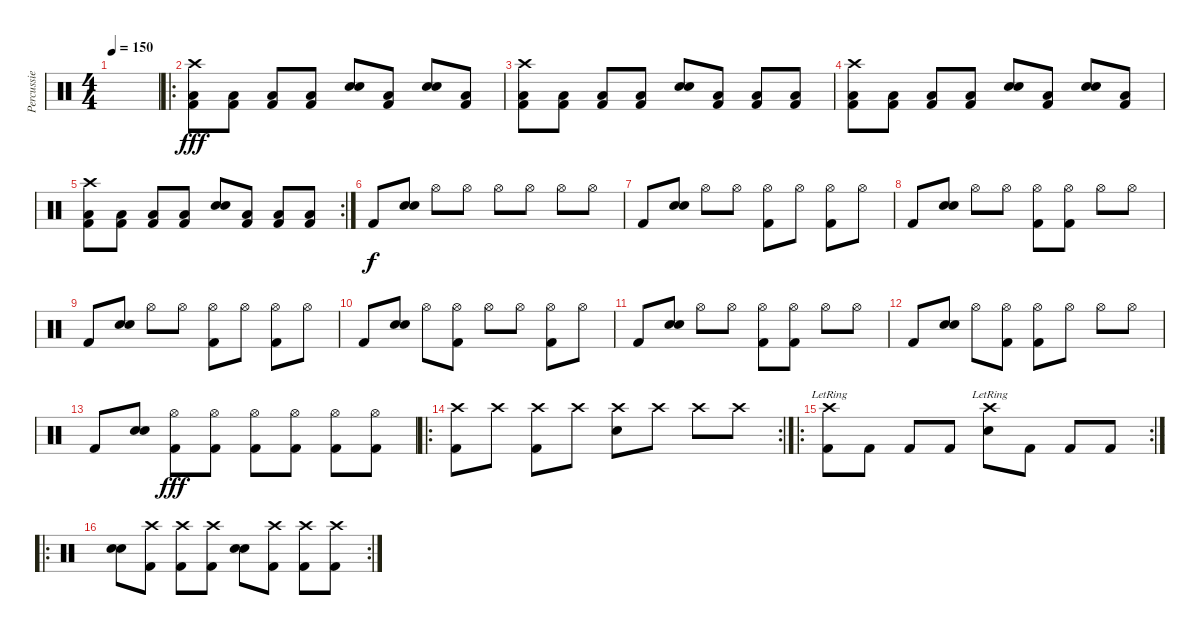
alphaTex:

\track ("Percussie" "Percussie") {instrument percussion}
\staff {score}
\articulation defaults
\ts (4 4)
\tempo 150
\clef neutral
\ks c
|
\ro
("Crash high (hit)" "Low Floor Tom (hit)" "Kick (hit) 2").8{dy fff} ("Low Floor Tom (hit)" "Kick (hit) 2").8 ("Low Floor Tom (hit)" "Kick (hit) 2").8 ("Low Floor Tom (hit)" "Kick (hit) 2").8 ("Snare (hit) 2" "Snare (hit) 2").8{bd 480} ("Low Floor Tom (hit)" "Kick (hit) 2").8 ("Snare (hit) 2" "Snare (hit) 2").8 ("Low Floor Tom (hit)" "Kick (hit) 2").8 |
("Crash high (hit)" "Low Floor Tom (hit)" "Kick (hit) 2").8 ("Low Floor Tom (hit)" "Kick (hit) 2").8 ("Low Floor Tom (hit)" "Kick (hit) 2").8 ("Low Floor Tom (hit)" "Kick (hit) 2").8 ("Snare (hit) 2" "Snare (hit) 2").8{bd 480} ("Low Floor Tom (hit)" "Kick (hit) 2").8 ("Low Floor Tom (hit)" "Kick (hit) 2").8 ("Low Floor Tom (hit)" "Kick (hit) 2").8 |
("Crash high (hit)" "Low Floor Tom (hit)" "Kick (hit) 2").8 ("Low Floor Tom (hit)" "Kick (hit) 2").8 ("Low Floor Tom (hit)" "Kick (hit) 2").8 ("Low Floor Tom (hit)" "Kick (hit) 2").8 ("Snare (hit) 2" "Snare (hit) 2").8{bd 480} ("Low Floor Tom (hit)" "Kick (hit) 2").8 ("Snare (hit) 2" "Snare (hit) 2").8 ("Low Floor Tom (hit)" "Kick (hit) 2").8 |
\rc 2
("Crash high (hit)" "Low Floor Tom (hit)" "Kick (hit) 2").8 ("Low Floor Tom (hit)" "Kick (hit) 2").8 ("Low Floor Tom (hit)" "Kick (hit) 2").8 ("Low Floor Tom (hit)" "Kick (hit) 2").8 ("Snare (hit) 2" "Snare (hit) 2").8{bd 480} ("Low Floor Tom (hit)" "Kick (hit) 2").8 ("Low Floor Tom (hit)" "Kick (hit) 2").8 ("Low Floor Tom (hit)" "Kick (hit) 2").8 |
"Kick (hit) 2".8{dy f} ("Snare (hit) 2" "Snare (hit) 2").8{bd 480} "Hi-Hat (open)".8 "Hi-Hat (open)".8 "Hi-Hat (open)".8 "Hi-Hat (open)".8 "Hi-Hat (open)".8 "Hi-Hat (open)".8 |
"Kick (hit) 2".8 ("Snare (hit) 2" "Snare (hit) 2").8{bd 480} "Hi-Hat (open)".8 "Hi-Hat (open)".8 ("Hi-Hat (open)" "Kick (hit) 2").8 "Hi-Hat (open)".8 ("Hi-Hat (open)" "Kick (hit) 2").8 "Hi-Hat (open)".8 |
"Kick (hit) 2".8 ("Snare (hit) 2" "Snare (hit) 2").8{bd 480} "Hi-Hat (open)".8 "Hi-Hat (open)".8 ("Hi-Hat (open)" "Kick (hit) 2").8 ("Hi-Hat (open)" "Kick (hit) 2").8 "Hi-Hat (open)".8 "Hi-Hat (open)".8 |
"Kick (hit) 2".8 ("Snare (hit) 2" "Snare (hit) 2").8{bd 480} "Hi-Hat (open)".8 "Hi-Hat (open)".8 ("Hi-Hat (open)" "Kick (hit) 2").8 "Hi-Hat (open)".8 ("Hi-Hat (open)" "Kick (hit) 2").8 "Hi-Hat (open)".8 |
"Kick (hit) 2".8 ("Snare (hit) 2" "Snare (hit) 2").8{bd 480} "Hi-Hat (open)".8 ("Hi-Hat (open)" "Kick (hit) 2").8 "Hi-Hat (open)".8 "Hi-Hat (open)".8 ("Hi-Hat (open)" "Kick (hit) 2").8 "Hi-Hat (open)".8 |
"Kick (hit) 2".8 ("Snare (hit) 2" "Snare (hit) 2").8{bd 480} "Hi-Hat (open)".8 "Hi-Hat (open)".8 ("Hi-Hat (open)" "Kick (hit) 2").8 ("Hi-Hat (open)" "Kick (hit) 2").8 "Hi-Hat (open)".8 "Hi-Hat (open)".8 |
"Kick (hit) 2".8 ("Snare (hit) 2" "Snare (hit) 2").8{bd 480} "Hi-Hat (open)".8 ("Hi-Hat (open)" "Kick (hit) 2").8 ("Hi-Hat (open)" "Kick (hit) 2").8 "Hi-Hat (open)".8 "Hi-Hat (open)".8 "Hi-Hat (open)".8 |
"Kick (hit) 2".8 ("Snare (hit) 2" "Snare (hit) 2").8{bd 480} ("Hi-Hat (open)" "Kick (hit) 2").8{dy fff} ("Hi-Hat (open)" "Kick (hit) 2").8 ("Hi-Hat (open)" "Kick (hit) 2").8 ("Hi-Hat (open)" "Kick (hit) 2").8 ("Hi-Hat (open)" "Kick (hit) 2").8 ("Hi-Hat (open)" "Kick (hit) 2").8 |
\ro
\rc 2
("Kick (hit) 2" "Crash high (hit)").8 "Crash high (hit)".8 ("Kick (hit) 2" "Crash high (hit)").8 "Crash high (hit)".8 ("Snare (hit) 2" "Crash high (hit)").8 "Crash high (hit)".8 "Crash high (hit)".8 "Crash high (hit)".8 |
\ro
\rc 2
("Crash high (hit)"{lr} "Kick (hit) 2").8 "Kick (hit) 2".8 "Kick (hit) 2".8 "Kick (hit) 2".8 ("Crash high (hit)"{lr} "Snare (hit) 2").8 "Kick (hit) 2".8 "Kick (hit) 2".8 "Kick (hit) 2".8 |
\ro
\rc 2
("Snare (hit) 2" "Snare (hit) 2").8{bd 480} ("Crash high (hit)" "Kick (hit) 2").8 ("Crash high (hit)" "Kick (hit) 2").8 ("Crash high (hit)" "Kick (hit) 2").8 ("Snare (hit) 2" "Snare (hit) 2").8{bd 480} ("Crash high (hit)" "Kick (hit) 2").8 ("Crash high (hit)" "Kick (hit) 2").8 ("Crash high (hit)" "Kick (hit) 2").8
